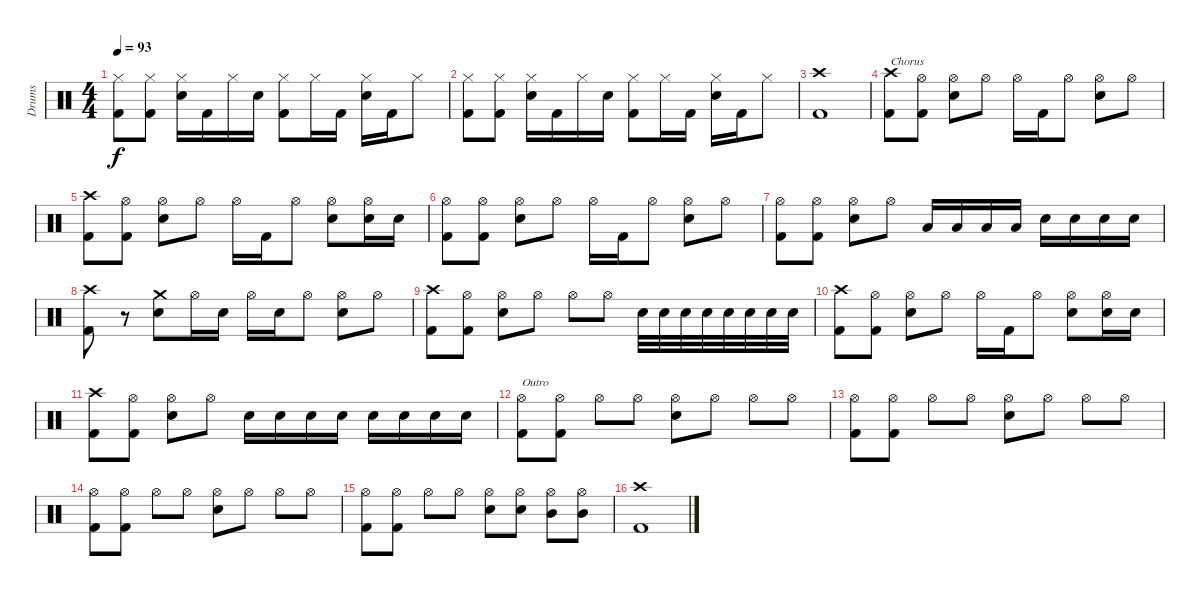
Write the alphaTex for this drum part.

\track ("Drums" "Drums") {instrument percussion}
\staff {score}
\articulation defaults
\ts (4 4)
\tempo 93
\clef neutral
\ks c
("Hi-Hat (closed)" "Kick (hit) 2").8{dy f} ("Hi-Hat (closed)" "Kick (hit) 2").8 ("Hi-Hat (closed)" "Electric Snare (hit)").16 "Kick (hit) 2".16 "Hi-Hat (closed)".16 "Electric Snare (hit)".16 ("Hi-Hat (closed)" "Kick (hit) 2").8 "Hi-Hat (closed)".16 "Kick (hit) 2".16 ("Hi-Hat (closed)" "Electric Snare (hit)").16 "Kick (hit) 2".16 "Hi-Hat (closed)".8 |
("Hi-Hat (closed)" "Kick (hit) 2").8 ("Hi-Hat (closed)" "Kick (hit) 2").8 ("Hi-Hat (closed)" "Electric Snare (hit)").16 "Kick (hit) 2".16 "Hi-Hat (closed)".16 "Electric Snare (hit)".16 ("Hi-Hat (closed)" "Kick (hit) 2").8 "Hi-Hat (closed)".16 "Kick (hit) 2".16 ("Hi-Hat (closed)" "Electric Snare (hit)").16 "Kick (hit) 2".16 "Hi-Hat (closed)".8 |
("Crash high (hit)" "Kick (hit) 2").1{volume 13} |
("Crash high (hit)" "Kick (hit) 2").8{txt "Chorus"} ("Hi-Hat (open)" "Kick (hit) 2").8 ("Hi-Hat (open)" "Electric Snare (hit)").8 "Hi-Hat (open)".8 "Hi-Hat (open)".16 "Kick (hit) 2".16 "Hi-Hat (open)".8 ("Hi-Hat (open)" "Electric Snare (hit)").8 "Hi-Hat (open)".8 |
("Crash high (hit)" "Kick (hit) 2").8 ("Hi-Hat (open)" "Kick (hit) 2").8 ("Hi-Hat (open)" "Electric Snare (hit)").8 "Hi-Hat (open)".8 "Hi-Hat (open)".16 "Kick (hit) 2".16 "Hi-Hat (open)".8 ("Hi-Hat (open)" "Electric Snare (hit)").8 ("Hi-Hat (open)" "Electric Snare (hit)").16 "Electric Snare (hit)".16 |
("Hi-Hat (open)" "Kick (hit) 2").8 ("Hi-Hat (open)" "Kick (hit) 2").8 ("Hi-Hat (open)" "Electric Snare (hit)").8 "Hi-Hat (open)".8 "Hi-Hat (open)".16 "Kick (hit) 2".16 "Hi-Hat (open)".8 ("Hi-Hat (open)" "Electric Snare (hit)").8 "Hi-Hat (open)".8 |
("Hi-Hat (open)" "Kick (hit) 2").8 ("Hi-Hat (open)" "Kick (hit) 2").8 ("Hi-Hat (open)" "Electric Snare (hit)").8 "Hi-Hat (open)".8 "Low Tom (hit)".16 "Low Tom (hit)".16 "Low Tom (hit)".16 "Low Tom (hit)".16 "Electric Snare (hit)".16 "Electric Snare (hit)".16 "Electric Snare (hit)".16 "Electric Snare (hit)".16 |
("Crash high (hit)" "Kick (hit) 2").8 r.8 ("Crash medium (hit)" "Electric Snare (hit)").8 "Hi-Hat (open)".16 "Electric Snare (hit)".16 "Hi-Hat (open)".16 "Electric Snare (hit)".16 "Hi-Hat (open)".8 ("Hi-Hat (open)" "Electric Snare (hit)").8 "Hi-Hat (open)".8 |
("Crash high (hit)" "Kick (hit) 2").8 ("Hi-Hat (open)" "Kick (hit) 2").8 ("Hi-Hat (open)" "Electric Snare (hit)").8 "Hi-Hat (open)".8 "Hi-Hat (open)".8 "Hi-Hat (open)".8 "Electric Snare (hit)".32 "Electric Snare (hit)".32 "Electric Snare (hit)".32 "Electric Snare (hit)".32 "Electric Snare (hit)".32 "Electric Snare (hit)".32 "Electric Snare (hit)".32 "Electric Snare (hit)".32 |
("Crash high (hit)" "Kick (hit) 2").8 ("Hi-Hat (open)" "Kick (hit) 2").8 ("Hi-Hat (open)" "Electric Snare (hit)").8 "Hi-Hat (open)".8 "Hi-Hat (open)".16 "Kick (hit) 2".16 "Hi-Hat (open)".8 ("Hi-Hat (open)" "Electric Snare (hit)").8 ("Hi-Hat (open)" "Electric Snare (hit)").16 "Electric Snare (hit)".16 |
("Crash high (hit)" "Kick (hit) 2").8 ("Hi-Hat (open)" "Kick (hit) 2").8 ("Hi-Hat (open)" "Electric Snare (hit)").8 "Hi-Hat (open)".8 "Electric Snare (hit)".16 "Electric Snare (hit)".16 "Electric Snare (hit)".16 "Electric Snare (hit)".16 "Electric Snare (hit)".16 "Electric Snare (hit)".16 "Electric Snare (hit)".16 "Electric Snare (hit)".16 |
("Hi-Hat (open)" "Kick (hit) 2").8{txt "Outro"} ("Hi-Hat (open)" "Kick (hit) 2").8 "Hi-Hat (open)".8 "Hi-Hat (open)".8 ("Hi-Hat (open)" "Electric Snare (hit)").8 "Hi-Hat (open)".8 "Hi-Hat (open)".8 "Hi-Hat (open)".8 |
("Hi-Hat (open)" "Kick (hit) 2").8 ("Hi-Hat (open)" "Kick (hit) 2").8 "Hi-Hat (open)".8 "Hi-Hat (open)".8 ("Hi-Hat (open)" "Electric Snare (hit)").8 "Hi-Hat (open)".8 "Hi-Hat (open)".8 "Hi-Hat (open)".8 |
("Hi-Hat (open)" "Kick (hit) 2").8 ("Hi-Hat (open)" "Kick (hit) 2").8 "Hi-Hat (open)".8 "Hi-Hat (open)".8 ("Hi-Hat (open)" "Electric Snare (hit)").8 "Hi-Hat (open)".8 "Hi-Hat (open)".8 "Hi-Hat (open)".8 |
("Hi-Hat (open)" "Kick (hit) 2").8 ("Hi-Hat (open)" "Kick (hit) 2").8 "Hi-Hat (open)".8 "Hi-Hat (open)".8 ("Hi-Hat (open)" "Electric Snare (hit)").8 ("Hi-Hat (open)" "Electric Snare (hit)").8 ("Hi-Hat (open)" "Mid Tom (hit)").8 ("Hi-Hat (open)" "Mid Tom (hit)").8 |
("Crash high (hit)" "Kick (hit) 2").1
